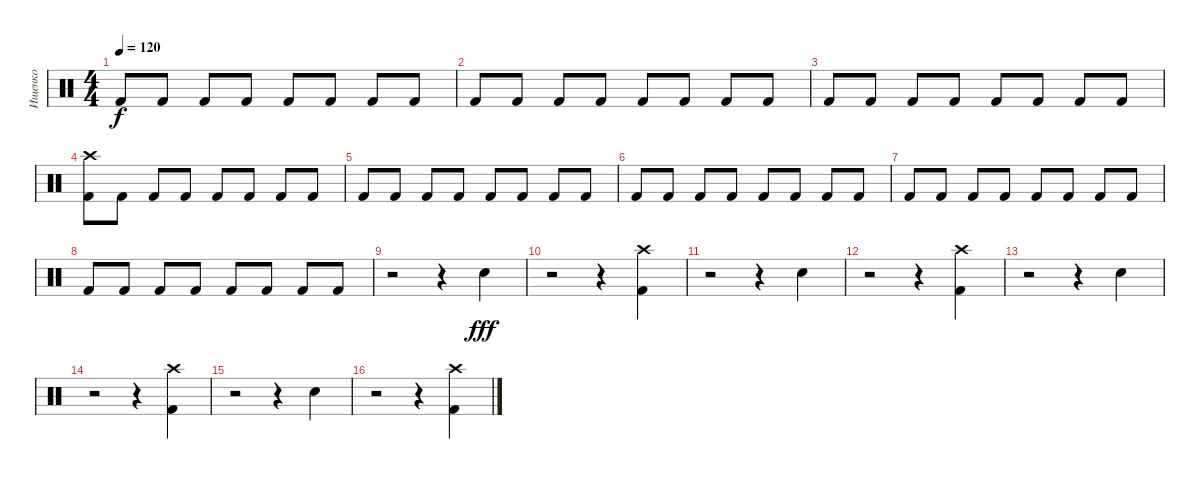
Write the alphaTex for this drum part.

\track ("Ищенко" "Ищенко") {instrument percussion}
\staff {score}
\articulation defaults
\ts (4 4)
\tempo 120
\clef neutral
\ks c "Kick (hit) 2".8{dy f} "Kick (hit) 2".8 "Kick (hit) 2".8 "Kick (hit) 2".8 "Kick (hit) 2".8 "Kick (hit) 2".8 "Kick (hit) 2".8 "Kick (hit) 2".8
|
"Kick (hit) 2".8 "Kick (hit) 2".8 "Kick (hit) 2".8 "Kick (hit) 2".8 "Kick (hit) 2".8 "Kick (hit) 2".8 "Kick (hit) 2".8 "Kick (hit) 2".8 |
"Kick (hit) 2".8 "Kick (hit) 2".8 "Kick (hit) 2".8 "Kick (hit) 2".8 "Kick (hit) 2".8 "Kick (hit) 2".8 "Kick (hit) 2".8 "Kick (hit) 2".8 |
("Crash high (hit)" "Kick (hit) 2").8 "Kick (hit) 2".8 "Kick (hit) 2".8 "Kick (hit) 2".8 "Kick (hit) 2".8 "Kick (hit) 2".8 "Kick (hit) 2".8 "Kick (hit) 2".8 |
"Kick (hit) 2".8 "Kick (hit) 2".8 "Kick (hit) 2".8 "Kick (hit) 2".8 "Kick (hit) 2".8 "Kick (hit) 2".8 "Kick (hit) 2".8 "Kick (hit) 2".8 |
"Kick (hit) 2".8 "Kick (hit) 2".8 "Kick (hit) 2".8 "Kick (hit) 2".8 "Kick (hit) 2".8 "Kick (hit) 2".8 "Kick (hit) 2".8 "Kick (hit) 2".8 |
"Kick (hit) 2".8 "Kick (hit) 2".8 "Kick (hit) 2".8 "Kick (hit) 2".8 "Kick (hit) 2".8 "Kick (hit) 2".8 "Kick (hit) 2".8 "Kick (hit) 2".8 |
"Kick (hit) 2".8 "Kick (hit) 2".8 "Kick (hit) 2".8 "Kick (hit) 2".8 "Kick (hit) 2".8 "Kick (hit) 2".8 "Kick (hit) 2".8 "Kick (hit) 2".8 |
r.2 r.4 "Electric Snare (hit)".4{dy fff} |
r.2 r.4 ("Crash high (hit)" "Kick (hit) 2").4 |
r.2 r.4 "Electric Snare (hit)".4 |
r.2 r.4 ("Crash high (hit)" "Kick (hit) 2").4 |
r.2 r.4 "Electric Snare (hit)".4 |
r.2 r.4 ("Crash high (hit)" "Kick (hit) 2").4 |
r.2 r.4 "Electric Snare (hit)".4 |
r.2 r.4 ("Crash high (hit)" "Kick (hit) 2").4
